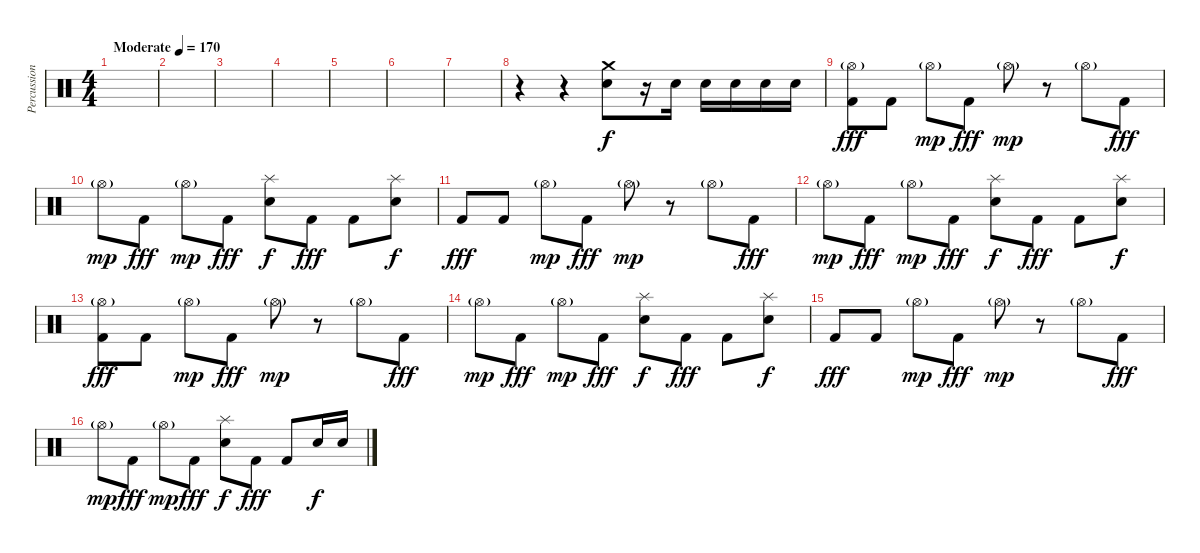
\track ("Percussion" "Percussion") {instrument percussion}
\staff {score}
\articulation defaults
\ts (4 4)
\tempo (170 "Moderate")
\clef neutral
\ks c
|
|
|
|
|
|
|
r.4 r.4 ("Crash medium (hit)" "Electric Snare (hit)").8 r.16 "Electric Snare (hit)".16 "Electric Snare (hit)".16 "Electric Snare (hit)".16 "Electric Snare (hit)".16 "Electric Snare (hit)".16 |
("Hi-Hat (open)"{g} "Kick (hit) 2").8{dy fff} "Kick (hit) 2".8 "Hi-Hat (open)"{g}.8{dy mp} "Kick (hit) 2".8{dy fff} "Hi-Hat (open)"{g}.8{dy mp} r.8 "Hi-Hat (open)"{g}.8 "Kick (hit) 2".8{dy fff} |
"Hi-Hat (open)"{g}.8{dy mp} "Kick (hit) 2".8{dy fff} "Hi-Hat (open)"{g}.8{dy mp} "Kick (hit) 2".8{dy fff} ("Splash (hit)" "Electric Snare (hit)").8{dy f} "Kick (hit) 2".8{dy fff} "Kick (hit) 2".8 ("Splash (hit)" "Electric Snare (hit)").8{dy f} |
"Kick (hit) 2".8{dy fff} "Kick (hit) 2".8 "Hi-Hat (open)"{g}.8{dy mp} "Kick (hit) 2".8{dy fff} "Hi-Hat (open)"{g}.8{dy mp} r.8 "Hi-Hat (open)"{g}.8 "Kick (hit) 2".8{dy fff} |
"Hi-Hat (open)"{g}.8{dy mp} "Kick (hit) 2".8{dy fff} "Hi-Hat (open)"{g}.8{dy mp} "Kick (hit) 2".8{dy fff} ("Splash (hit)" "Electric Snare (hit)").8{dy f} "Kick (hit) 2".8{dy fff} "Kick (hit) 2".8 ("Splash (hit)" "Electric Snare (hit)").8{dy f} |
("Hi-Hat (open)"{g} "Kick (hit) 2").8{dy fff} "Kick (hit) 2".8 "Hi-Hat (open)"{g}.8{dy mp} "Kick (hit) 2".8{dy fff} "Hi-Hat (open)"{g}.8{dy mp} r.8 "Hi-Hat (open)"{g}.8 "Kick (hit) 2".8{dy fff} |
"Hi-Hat (open)"{g}.8{dy mp} "Kick (hit) 2".8{dy fff} "Hi-Hat (open)"{g}.8{dy mp} "Kick (hit) 2".8{dy fff} ("Splash (hit)" "Electric Snare (hit)").8{dy f} "Kick (hit) 2".8{dy fff} "Kick (hit) 2".8 ("Splash (hit)" "Electric Snare (hit)").8{dy f} |
"Kick (hit) 2".8{dy fff} "Kick (hit) 2".8 "Hi-Hat (open)"{g}.8{dy mp} "Kick (hit) 2".8{dy fff} "Hi-Hat (open)"{g}.8{dy mp} r.8 "Hi-Hat (open)"{g}.8 "Kick (hit) 2".8{dy fff} |
"Hi-Hat (open)"{g}.8{dy mp} "Kick (hit) 2".8{dy fff} "Hi-Hat (open)"{g}.8{dy mp} "Kick (hit) 2".8{dy fff} ("Splash (hit)" "Electric Snare (hit)").8{dy f} "Kick (hit) 2".8{dy fff} "Kick (hit) 2".8 "Electric Snare (hit)".16{dy f} "Electric Snare (hit)".16
